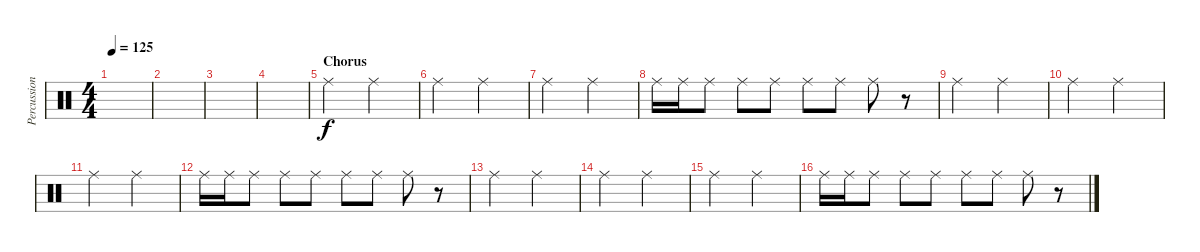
\track ("Percussion" "Percussion") {instrument percussion}
\staff {score}
\articulation defaults
\ts (4 4)
\tempo 125
\clef neutral
\ks c
|
|
|
|
\section ("" "Chorus")
"Ride (middle)".2 "Ride (middle)".2 |
"Ride (middle)".2 "Ride (middle)".2 |
"Ride (middle)".2 "Ride (middle)".2 |
"Ride (middle)".16 "Ride (middle)".16 "Ride (middle)".8 "Ride (middle)".8 "Ride (middle)".8 "Ride (middle)".8 "Ride (middle)".8 "Ride (middle)".8 r.8 |
"Ride (middle)".2 "Ride (middle)".2 |
"Ride (middle)".2 "Ride (middle)".2 |
"Ride (middle)".2 "Ride (middle)".2 |
"Ride (middle)".16 "Ride (middle)".16 "Ride (middle)".8 "Ride (middle)".8 "Ride (middle)".8 "Ride (middle)".8 "Ride (middle)".8 "Ride (middle)".8 r.8 |
"Ride (middle)".2 "Ride (middle)".2 |
"Ride (middle)".2 "Ride (middle)".2 |
"Ride (middle)".2 "Ride (middle)".2 |
"Ride (middle)".16 "Ride (middle)".16 "Ride (middle)".8 "Ride (middle)".8 "Ride (middle)".8 "Ride (middle)".8 "Ride (middle)".8 "Ride (middle)".8 r.8
